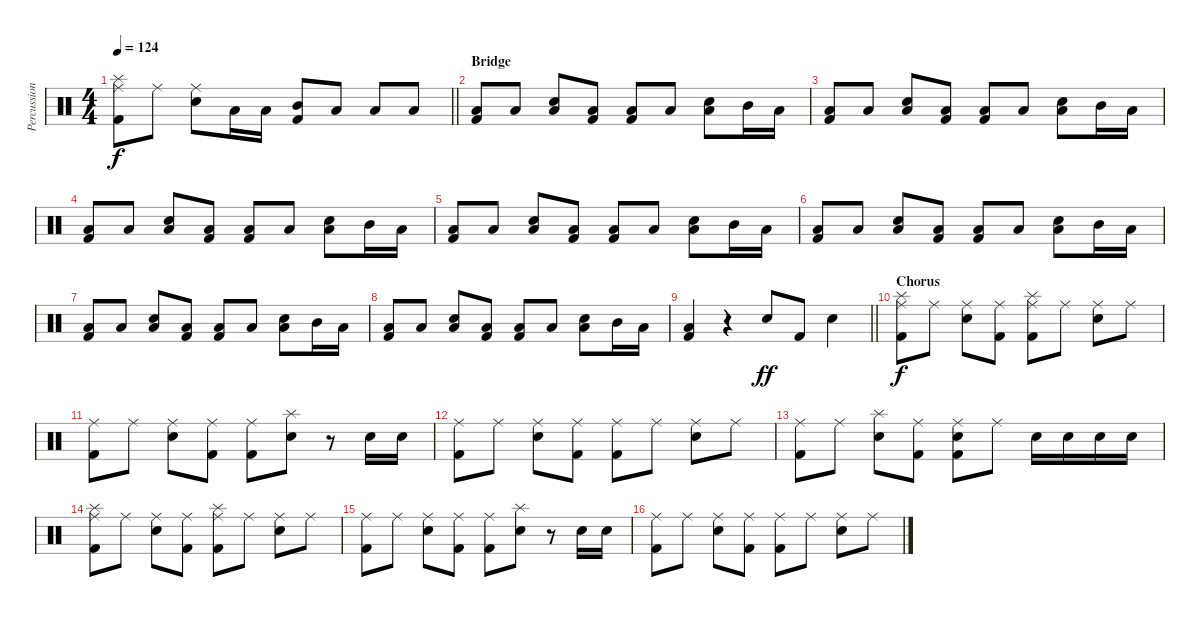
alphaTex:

\track ("Percussioni" "Percussion") {instrument percussion}
\staff {score}
\articulation defaults
\ts (4 4)
\tempo 124
\clef neutral
\barLineRight lightlight
\ks c
("Ride (middle)" "Splash (hit)" "Kick (hit) 2").8{dy f} "Ride (middle)".8 ("Ride (middle)" "Snare (hit) 2").8 "Low Floor Tom (hit)".16 "Low Tom (hit)".16 ("Mid Tom (hit)" "Kick (hit) 2").8 "Low Tom (hit)".8 "Low Tom (hit)".8 "Low Floor Tom (hit)".8 |
\section ("" "Bridge")
("Low Floor Tom (hit)" "Kick (hit) 2").8 "Low Floor Tom (hit)".8 ("Snare (hit) 2" "Low Floor Tom (hit)").8 ("Low Floor Tom (hit)" "Kick (hit) 2").8 ("Low Floor Tom (hit)" "Kick (hit) 2").8 "Low Floor Tom (hit)".8 ("Snare (hit) 2" "Low Floor Tom (hit)").8 "Mid Tom (hit)".16 "Low Floor Tom (hit)".16 |
("Low Floor Tom (hit)" "Kick (hit) 2").8 "Low Floor Tom (hit)".8 ("Snare (hit) 2" "Low Floor Tom (hit)").8 ("Low Floor Tom (hit)" "Kick (hit) 2").8 ("Low Floor Tom (hit)" "Kick (hit) 2").8 "Low Floor Tom (hit)".8 ("Snare (hit) 2" "Low Floor Tom (hit)").8 "Mid Tom (hit)".16 "Low Floor Tom (hit)".16 |
("Low Floor Tom (hit)" "Kick (hit) 2").8 "Low Floor Tom (hit)".8 ("Snare (hit) 2" "Low Floor Tom (hit)").8 ("Low Floor Tom (hit)" "Kick (hit) 2").8 ("Low Floor Tom (hit)" "Kick (hit) 2").8 "Low Floor Tom (hit)".8 ("Snare (hit) 2" "Low Floor Tom (hit)").8 "Mid Tom (hit)".16 "Low Floor Tom (hit)".16 |
("Low Floor Tom (hit)" "Kick (hit) 2").8 "Low Floor Tom (hit)".8 ("Snare (hit) 2" "Low Floor Tom (hit)").8 ("Low Floor Tom (hit)" "Kick (hit) 2").8 ("Low Floor Tom (hit)" "Kick (hit) 2").8 "Low Floor Tom (hit)".8 ("Snare (hit) 2" "Low Floor Tom (hit)").8 "Mid Tom (hit)".16 "Low Floor Tom (hit)".16 |
("Low Floor Tom (hit)" "Kick (hit) 2").8 "Low Floor Tom (hit)".8 ("Snare (hit) 2" "Low Floor Tom (hit)").8 ("Low Floor Tom (hit)" "Kick (hit) 2").8 ("Low Floor Tom (hit)" "Kick (hit) 2").8 "Low Floor Tom (hit)".8 ("Snare (hit) 2" "Low Floor Tom (hit)").8 "Mid Tom (hit)".16 "Low Floor Tom (hit)".16 |
("Low Floor Tom (hit)" "Kick (hit) 2").8 "Low Floor Tom (hit)".8 ("Snare (hit) 2" "Low Floor Tom (hit)").8 ("Low Floor Tom (hit)" "Kick (hit) 2").8 ("Low Floor Tom (hit)" "Kick (hit) 2").8 "Low Floor Tom (hit)".8 ("Snare (hit) 2" "Low Floor Tom (hit)").8 "Mid Tom (hit)".16 "Low Floor Tom (hit)".16 |
("Low Floor Tom (hit)" "Kick (hit) 2").8 "Low Floor Tom (hit)".8 ("Snare (hit) 2" "Low Floor Tom (hit)").8 ("Low Floor Tom (hit)" "Kick (hit) 2").8 ("Low Floor Tom (hit)" "Kick (hit) 2").8 "Low Floor Tom (hit)".8 ("Snare (hit) 2" "Low Floor Tom (hit)").8 "Mid Tom (hit)".16 "Low Floor Tom (hit)".16 |
\barLineRight lightlight
("Low Floor Tom (hit)" "Kick (hit) 2").4 r.4 "Snare (hit) 2".8{dy ff} "Kick (hit) 2".8 "Snare (hit) 2".4 |
\section ("" "Chorus")
("Ride (middle)" "Splash (hit)" "Kick (hit) 2").8{dy f} "Ride (middle)".8 ("Ride (middle)" "Snare (hit) 2").8 ("Ride (middle)" "Kick (hit) 2").8 ("Ride (middle)" "Splash (hit)" "Kick (hit) 2").8 "Ride (middle)".8 ("Ride (middle)" "Snare (hit) 2").8 "Ride (middle)".8 |
("Ride (middle)" "Kick (hit) 2").8 "Ride (middle)".8 ("Ride (middle)" "Snare (hit) 2").8 ("Ride (middle)" "Kick (hit) 2").8 ("Ride (middle)" "Kick (hit) 2").8 ("Splash (hit)" "Snare (hit) 2").8 r.8 "Snare (hit) 2".16 "Snare (hit) 2".16 |
("Ride (middle)" "Kick (hit) 2").8 "Ride (middle)".8 ("Ride (middle)" "Snare (hit) 2").8 ("Ride (middle)" "Kick (hit) 2").8 ("Ride (middle)" "Kick (hit) 2").8 "Ride (middle)".8 ("Ride (middle)" "Snare (hit) 2").8 "Ride (middle)".8 |
("Ride (middle)" "Kick (hit) 2").8 "Ride (middle)".8 ("Splash (hit)" "Snare (hit) 2").8 ("Ride (middle)" "Kick (hit) 2").8 ("Ride (middle)" "Snare (hit) 2" "Kick (hit) 2").8 "Ride (middle)".8 "Snare (hit) 2".16 "Snare (hit) 2".16 "Snare (hit) 2".16 "Snare (hit) 2".16 |
("Ride (middle)" "Splash (hit)" "Kick (hit) 2").8 "Ride (middle)".8 ("Ride (middle)" "Snare (hit) 2").8 ("Ride (middle)" "Kick (hit) 2").8 ("Ride (middle)" "Splash (hit)" "Kick (hit) 2").8 "Ride (middle)".8 ("Ride (middle)" "Snare (hit) 2").8 "Ride (middle)".8 |
("Ride (middle)" "Kick (hit) 2").8 "Ride (middle)".8 ("Ride (middle)" "Snare (hit) 2").8 ("Ride (middle)" "Kick (hit) 2").8 ("Ride (middle)" "Kick (hit) 2").8 ("Splash (hit)" "Snare (hit) 2").8 r.8 "Snare (hit) 2".16 "Snare (hit) 2".16 |
("Ride (middle)" "Kick (hit) 2").8 "Ride (middle)".8 ("Ride (middle)" "Snare (hit) 2").8 ("Ride (middle)" "Kick (hit) 2").8 ("Ride (middle)" "Kick (hit) 2").8 "Ride (middle)".8 ("Ride (middle)" "Snare (hit) 2").8 "Ride (middle)".8
